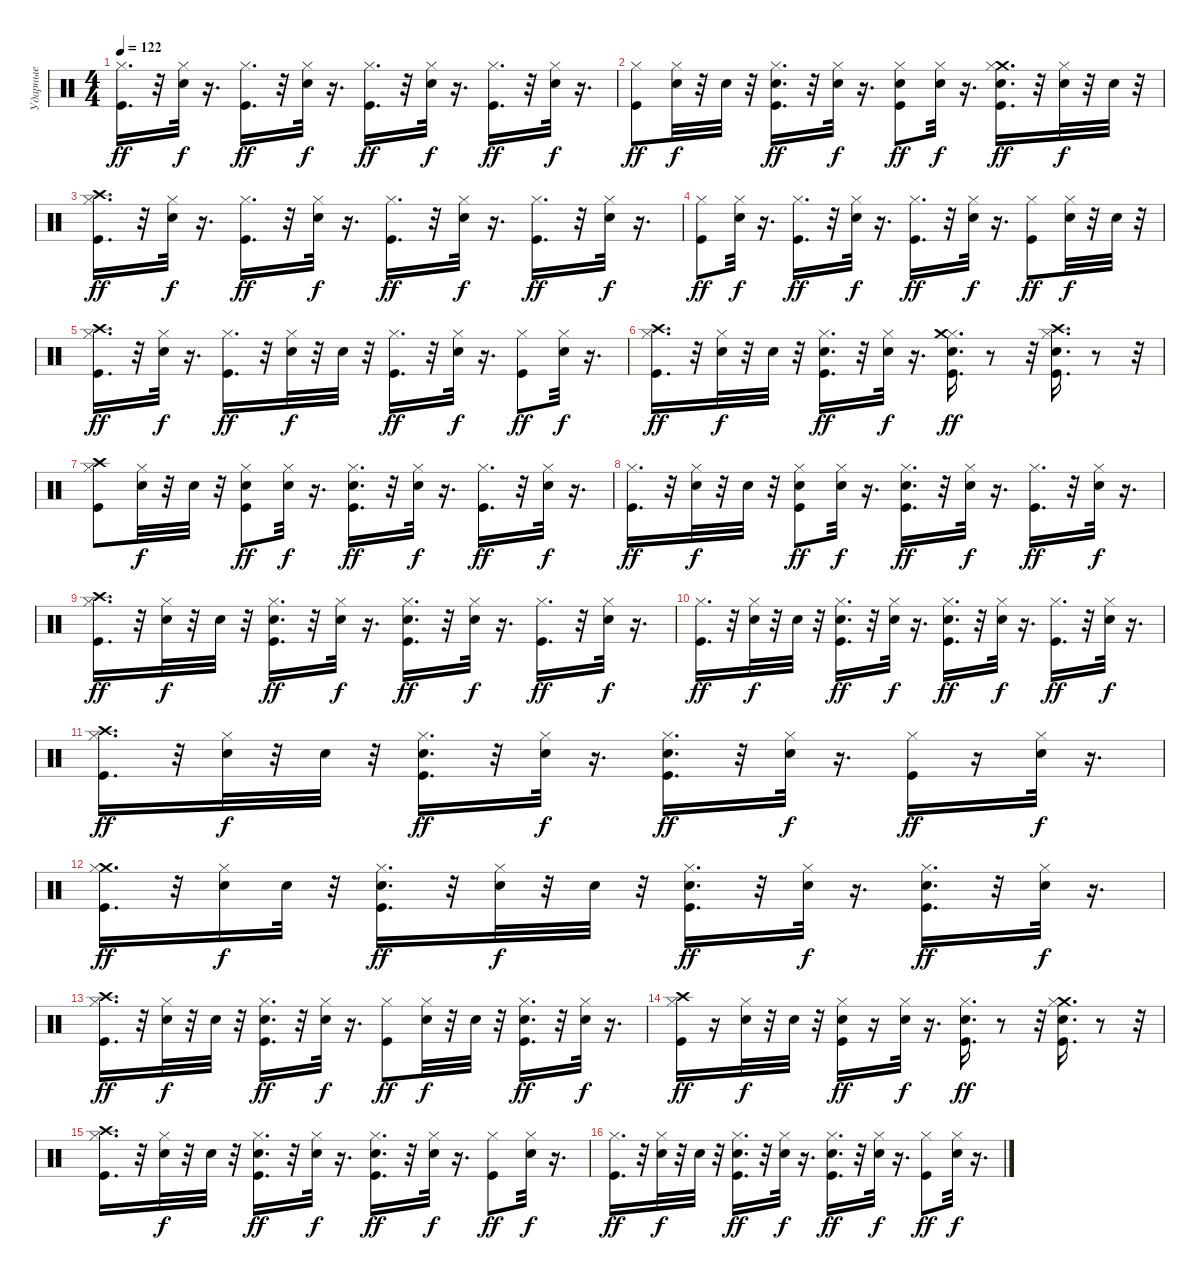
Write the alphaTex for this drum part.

\track ("Ударные" "Ударные") {instrument percussion}
\staff {score}
\articulation defaults
\ts (4 4)
\tempo 122
\clef neutral
\ks c
("Hi-Hat (closed)" "Kick (hit)").16{d dy ff} r.32 ("Hi-Hat (closed)" "Electric Snare (hit)").32{dy f} r.16{d} ("Hi-Hat (closed)" "Kick (hit)").16{d dy ff} r.32 ("Hi-Hat (closed)" "Electric Snare (hit)").32{dy f} r.16{d} ("Kick (hit)" "Hi-Hat (closed)").16{d dy ff} r.32 ("Hi-Hat (closed)" "Electric Snare (hit)").32{dy f} r.16{d} ("Hi-Hat (closed)" "Kick (hit)").16{d dy ff} r.32 ("Hi-Hat (closed)" "Electric Snare (hit)").32{dy f} r.16{d} |
("Kick (hit)" "Hi-Hat (closed)").8{dy ff} ("Electric Snare (hit)" "Hi-Hat (closed)").32{dy f} r.32 "Electric Snare (hit)".32 r.32 ("Electric Snare (hit)" "Kick (hit)" "Hi-Hat (closed)").16{d dy ff} r.32 ("Electric Snare (hit)" "Hi-Hat (closed)").32{dy f} r.16{d} ("Electric Snare (hit)" "Kick (hit)" "Hi-Hat (closed)").8{dy ff} ("Electric Snare (hit)" "Hi-Hat (closed)").32{dy f} r.16{d} ("Electric Snare (hit)" "Crash medium (hit)" "Kick (hit)" "Hi-Hat (closed)").16{d dy ff} r.32 ("Hi-Hat (closed)" "Electric Snare (hit)").32{dy f} r.32 "Electric Snare (hit)".32 r.32 |
("Crash high (hit)" "Kick (hit)" "Hi-Hat (closed)").16{d dy ff} r.32 ("Hi-Hat (closed)" "Electric Snare (hit)").32{dy f} r.16{d} ("Hi-Hat (closed)" "Kick (hit)").16{d dy ff} r.32 ("Electric Snare (hit)" "Hi-Hat (closed)").32{dy f} r.16{d} ("Kick (hit)" "Hi-Hat (closed)").16{d dy ff} r.32 ("Electric Snare (hit)" "Hi-Hat (closed)").32{dy f} r.16{d} ("Hi-Hat (closed)" "Kick (hit)").16{d dy ff} r.32 ("Hi-Hat (closed)" "Electric Snare (hit)").32{dy f} r.16{d} |
("Hi-Hat (closed)" "Kick (hit)").8{dy ff} ("Hi-Hat (closed)" "Electric Snare (hit)").32{dy f} r.16{d} ("Hi-Hat (closed)" "Kick (hit)").16{d dy ff} r.32 ("Hi-Hat (closed)" "Electric Snare (hit)").32{dy f} r.16{d} ("Kick (hit)" "Hi-Hat (closed)").16{d dy ff} r.32 ("Hi-Hat (closed)" "Electric Snare (hit)").32{dy f} r.16{d} ("Hi-Hat (closed)" "Kick (hit)").8{dy ff} ("Electric Snare (hit)" "Hi-Hat (closed)").32{dy f} r.32 "Electric Snare (hit)".32 r.32 |
("Crash high (hit)" "Kick (hit)" "Hi-Hat (closed)").16{d dy ff} r.32 ("Hi-Hat (closed)" "Electric Snare (hit)").32{dy f} r.16{d} ("Kick (hit)" "Hi-Hat (closed)").16{d dy ff} r.32 ("Hi-Hat (closed)" "Electric Snare (hit)").32{dy f} r.32 "Electric Snare (hit)".32 r.32 ("Kick (hit)" "Hi-Hat (closed)").16{d dy ff} r.32 ("Hi-Hat (closed)" "Electric Snare (hit)").32{dy f} r.16{d} ("Kick (hit)" "Hi-Hat (closed)").8{dy ff} ("Electric Snare (hit)" "Hi-Hat (closed)").32{dy f} r.16{d} |
("Kick (hit)" "Hi-Hat (closed)" "Crash high (hit)").16{d dy ff} r.32 ("Electric Snare (hit)" "Hi-Hat (closed)").32{dy f} r.32 "Electric Snare (hit)".32 r.32 ("Electric Snare (hit)" "Kick (hit)" "Hi-Hat (closed)").16{d dy ff} r.32 ("Electric Snare (hit)" "Hi-Hat (closed)").32{dy f} r.16{d} ("Electric Snare (hit)" "Kick (hit)" "Hi-Hat (closed)" "Crash medium (hit)").16{d dy ff} r.8 r.32 ("Hi-Hat (closed)" "Kick (hit)" "Crash high (hit)" "Electric Snare (hit)").16{d} r.8 r.32 |
("Crash high (hit)" "Kick (hit)" "Hi-Hat (closed)").8 ("Electric Snare (hit)" "Hi-Hat (closed)").32{dy f} r.32 "Electric Snare (hit)".32 r.32 ("Electric Snare (hit)" "Hi-Hat (closed)" "Kick (hit)").8{dy ff} ("Electric Snare (hit)" "Hi-Hat (closed)").32{dy f} r.16{d} ("Electric Snare (hit)" "Hi-Hat (closed)" "Kick (hit)").16{d dy ff} r.32 ("Electric Snare (hit)" "Hi-Hat (closed)").32{dy f} r.16{d} ("Hi-Hat (closed)" "Kick (hit)").16{d dy ff} r.32 ("Electric Snare (hit)" "Hi-Hat (closed)").32{dy f} r.16{d} |
("Kick (hit)" "Hi-Hat (closed)").16{d dy ff} r.32 ("Electric Snare (hit)" "Hi-Hat (closed)").32{dy f} r.32 "Electric Snare (hit)".32 r.32 ("Electric Snare (hit)" "Hi-Hat (closed)" "Kick (hit)").8{dy ff} ("Electric Snare (hit)" "Hi-Hat (closed)").32{dy f} r.16{d} ("Electric Snare (hit)" "Kick (hit)" "Hi-Hat (closed)").16{d dy ff} r.32 ("Electric Snare (hit)" "Hi-Hat (closed)").32{dy f} r.16{d} ("Kick (hit)" "Hi-Hat (closed)").16{d dy ff} r.32 ("Hi-Hat (closed)" "Electric Snare (hit)").32{dy f} r.16{d} |
("Crash high (hit)" "Kick (hit)" "Hi-Hat (closed)").16{d dy ff} r.32 ("Hi-Hat (closed)" "Electric Snare (hit)").32{dy f} r.32 "Electric Snare (hit)".32 r.32 ("Hi-Hat (closed)" "Kick (hit)" "Electric Snare (hit)").16{d dy ff} r.32 ("Hi-Hat (closed)" "Electric Snare (hit)").32{dy f} r.16{d} ("Hi-Hat (closed)" "Kick (hit)" "Electric Snare (hit)").16{d dy ff} r.32 ("Hi-Hat (closed)" "Electric Snare (hit)").32{dy f} r.16{d} ("Hi-Hat (closed)" "Kick (hit)").16{d dy ff} r.32 ("Hi-Hat (closed)" "Electric Snare (hit)").32{dy f} r.16{d} |
("Hi-Hat (closed)" "Kick (hit)").16{d dy ff} r.32 ("Electric Snare (hit)" "Hi-Hat (closed)").32{dy f} r.32 "Electric Snare (hit)".32 r.32 ("Hi-Hat (closed)" "Kick (hit)" "Electric Snare (hit)").16{d dy ff} r.32 ("Hi-Hat (closed)" "Electric Snare (hit)").32{dy f} r.16{d} ("Kick (hit)" "Hi-Hat (closed)" "Electric Snare (hit)").16{d dy ff} r.32 ("Electric Snare (hit)" "Hi-Hat (closed)").32{dy f} r.16{d} ("Kick (hit)" "Hi-Hat (closed)").16{d dy ff} r.32 ("Hi-Hat (closed)" "Electric Snare (hit)").32{dy f} r.16{d} |
("Crash high (hit)" "Kick (hit)" "Hi-Hat (closed)").16{d dy ff} r.32 ("Hi-Hat (closed)" "Electric Snare (hit)").32{dy f} r.32 "Electric Snare (hit)".32 r.32 ("Hi-Hat (closed)" "Kick (hit)" "Electric Snare (hit)").16{d dy ff} r.32 ("Hi-Hat (closed)" "Electric Snare (hit)").32{dy f} r.16{d} ("Kick (hit)" "Hi-Hat (closed)" "Electric Snare (hit)").16{d dy ff} r.32 ("Hi-Hat (closed)" "Electric Snare (hit)").32{dy f} r.16{d} ("Kick (hit)" "Hi-Hat (closed)").16{dy ff} r.16 ("Hi-Hat (closed)" "Electric Snare (hit)").32{dy f} r.16{d} |
("Crash medium (hit)" "Kick (hit)" "Hi-Hat (closed)").16{d dy ff} r.32 ("Electric Snare (hit)" "Hi-Hat (closed)").16{dy f} "Electric Snare (hit)".32 r.32 ("Electric Snare (hit)" "Hi-Hat (closed)" "Kick (hit)").16{d dy ff} r.32 ("Hi-Hat (closed)" "Electric Snare (hit)").32{dy f} r.32 "Electric Snare (hit)".32 r.32 ("Kick (hit)" "Hi-Hat (closed)" "Electric Snare (hit)").16{d dy ff} r.32 ("Hi-Hat (closed)" "Electric Snare (hit)").32{dy f} r.16{d} ("Kick (hit)" "Hi-Hat (closed)" "Electric Snare (hit)").16{d dy ff} r.32 ("Hi-Hat (closed)" "Electric Snare (hit)").32{dy f} r.16{d} |
("Crash high (hit)" "Kick (hit)" "Hi-Hat (closed)").16{d dy ff} r.32 ("Hi-Hat (closed)" "Electric Snare (hit)").32{dy f} r.32 "Electric Snare (hit)".32 r.32 ("Kick (hit)" "Hi-Hat (closed)" "Electric Snare (hit)").16{d dy ff} r.32 ("Hi-Hat (closed)" "Electric Snare (hit)").32{dy f} r.16{d} ("Kick (hit)" "Hi-Hat (closed)").8{dy ff} ("Electric Snare (hit)" "Hi-Hat (closed)").32{dy f} r.32 "Electric Snare (hit)".32 r.32 ("Electric Snare (hit)" "Kick (hit)" "Hi-Hat (closed)").16{d dy ff} r.32 ("Hi-Hat (closed)" "Electric Snare (hit)").32{dy f} r.16{d} |
("Crash high (hit)" "Kick (hit)" "Hi-Hat (closed)").16{dy ff} r.16 ("Electric Snare (hit)" "Hi-Hat (closed)").32{dy f} r.32 "Electric Snare (hit)".32 r.32 ("Electric Snare (hit)" "Hi-Hat (closed)" "Kick (hit)").16{dy ff} r.16 ("Hi-Hat (closed)" "Electric Snare (hit)").32{dy f} r.16{d} ("Kick (hit)" "Hi-Hat (closed)" "Electric Snare (hit)").16{d dy ff} r.8 r.32 ("Crash medium (hit)" "Kick (hit)" "Hi-Hat (closed)" "Electric Snare (hit)").16{d} r.8 r.32 |
("Crash high (hit)" "Hi-Hat (closed)" "Kick (hit)").16{d} r.32 ("Hi-Hat (closed)" "Electric Snare (hit)").32{dy f} r.32 "Electric Snare (hit)".32 r.32 ("Hi-Hat (closed)" "Kick (hit)" "Electric Snare (hit)").16{d dy ff} r.32 ("Hi-Hat (closed)" "Electric Snare (hit)").32{dy f} r.16{d} ("Kick (hit)" "Hi-Hat (closed)" "Electric Snare (hit)").16{d dy ff} r.32 ("Hi-Hat (closed)" "Electric Snare (hit)").32{dy f} r.16{d} ("Kick (hit)" "Hi-Hat (closed)").8{dy ff} ("Hi-Hat (closed)" "Electric Snare (hit)").32{dy f} r.16{d} |
("Kick (hit)" "Hi-Hat (closed)").16{d dy ff} r.32 ("Electric Snare (hit)" "Hi-Hat (closed)").32{dy f} r.32 "Electric Snare (hit)".32 r.32 ("Electric Snare (hit)" "Kick (hit)" "Hi-Hat (closed)").16{d dy ff} r.32 ("Hi-Hat (closed)" "Electric Snare (hit)").32{dy f} r.16{d} ("Kick (hit)" "Hi-Hat (closed)" "Electric Snare (hit)").16{d dy ff} r.32 ("Hi-Hat (closed)" "Electric Snare (hit)").32{dy f} r.16{d} ("Kick (hit)" "Hi-Hat (closed)").8{dy ff} ("Hi-Hat (closed)" "Electric Snare (hit)").32{dy f} r.16{d}
